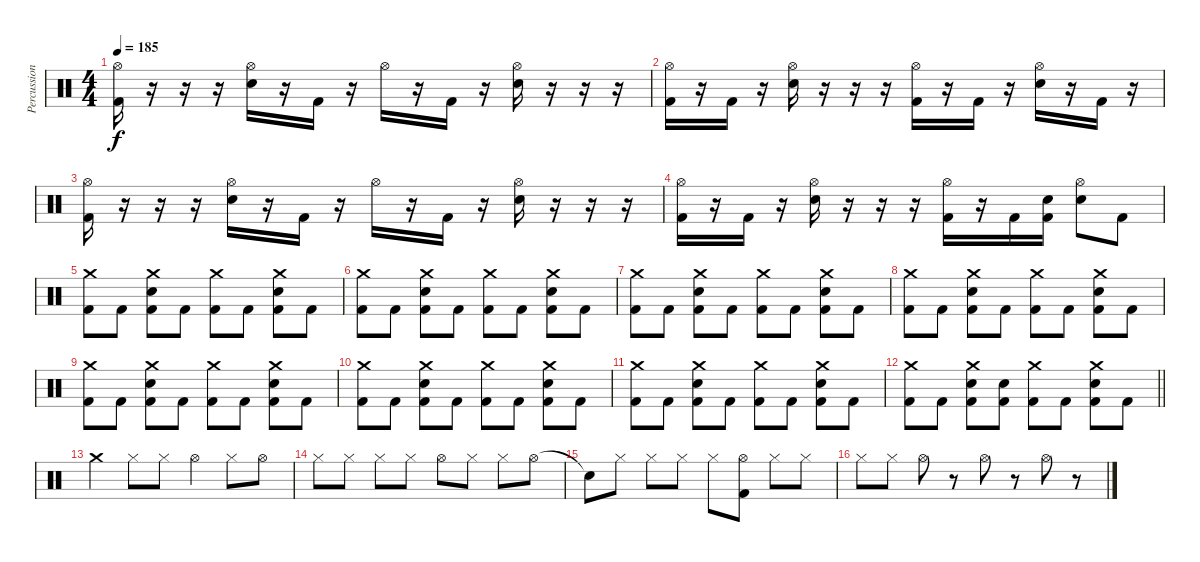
\track ("Percussion" "Percussion") {instrument percussion}
\staff {score}
\articulation defaults
\ts (4 4)
\tempo 185
\clef neutral
\ks c
("Hi-Hat (open)" "Kick (hit) 2").16{dy f} r.16 r.16 r.16 ("Hi-Hat (open)" "Electric Snare (hit)").16 r.16 "Kick (hit) 2".16 r.16 "Hi-Hat (open)".16 r.16 "Kick (hit) 2".16 r.16 ("Hi-Hat (open)" "Electric Snare (hit)").16 r.16 r.16 r.16 |
("Hi-Hat (open)" "Kick (hit) 2").16 r.16 "Kick (hit) 2".16 r.16 ("Hi-Hat (open)" "Electric Snare (hit)").16 r.16 r.16 r.16 ("Hi-Hat (open)" "Kick (hit) 2").16 r.16 "Kick (hit) 2".16 r.16 ("Hi-Hat (open)" "Electric Snare (hit)").16 r.16 "Kick (hit) 2".16 r.16 |
("Hi-Hat (open)" "Kick (hit) 2").16 r.16 r.16 r.16 ("Hi-Hat (open)" "Electric Snare (hit)").16 r.16 "Kick (hit) 2".16 r.16 "Hi-Hat (open)".16 r.16 "Kick (hit) 2".16 r.16 ("Hi-Hat (open)" "Electric Snare (hit)").16 r.16 r.16 r.16 |
("Hi-Hat (open)" "Kick (hit) 2").16 r.16 "Kick (hit) 2".16 r.16 ("Hi-Hat (open)" "Electric Snare (hit)").16 r.16 r.16 r.16 ("Hi-Hat (open)" "Kick (hit) 2").16 r.16 "Kick (hit) 2".16 ("Electric Snare (hit)" "Kick (hit) 2").16 ("Hi-Hat (open)" "Electric Snare (hit)").8 "Kick (hit) 2".8 |
("Crash medium (hit)" "Kick (hit) 2").8 "Kick (hit) 2".8 ("Crash medium (hit)" "Electric Snare (hit)" "Kick (hit) 2").8 "Kick (hit) 2".8 ("Crash medium (hit)" "Kick (hit) 2").8 "Kick (hit) 2".8 ("Crash medium (hit)" "Electric Snare (hit)" "Kick (hit) 2").8 "Kick (hit) 2".8 |
("Crash medium (hit)" "Kick (hit) 2").8 "Kick (hit) 2".8 ("Crash medium (hit)" "Electric Snare (hit)" "Kick (hit) 2").8 "Kick (hit) 2".8 ("Crash medium (hit)" "Kick (hit) 2").8 "Kick (hit) 2".8 ("Crash medium (hit)" "Electric Snare (hit)" "Kick (hit) 2").8 "Kick (hit) 2".8 |
("Crash medium (hit)" "Kick (hit) 2").8 "Kick (hit) 2".8 ("Crash medium (hit)" "Electric Snare (hit)" "Kick (hit) 2").8 "Kick (hit) 2".8 ("Crash medium (hit)" "Kick (hit) 2").8 "Kick (hit) 2".8 ("Crash medium (hit)" "Electric Snare (hit)" "Kick (hit) 2").8 "Kick (hit) 2".8 |
("Crash medium (hit)" "Kick (hit) 2").8 "Kick (hit) 2".8 ("Crash medium (hit)" "Electric Snare (hit)" "Kick (hit) 2").8 "Kick (hit) 2".8 ("Crash medium (hit)" "Kick (hit) 2").8 "Kick (hit) 2".8 ("Crash medium (hit)" "Electric Snare (hit)" "Kick (hit) 2").8 "Kick (hit) 2".8 |
("Crash medium (hit)" "Kick (hit) 2").8 "Kick (hit) 2".8 ("Crash medium (hit)" "Electric Snare (hit)" "Kick (hit) 2").8 "Kick (hit) 2".8 ("Crash medium (hit)" "Kick (hit) 2").8 "Kick (hit) 2".8 ("Crash medium (hit)" "Electric Snare (hit)" "Kick (hit) 2").8 "Kick (hit) 2".8 |
("Crash medium (hit)" "Kick (hit) 2").8 "Kick (hit) 2".8 ("Crash medium (hit)" "Electric Snare (hit)" "Kick (hit) 2").8 "Kick (hit) 2".8 ("Crash medium (hit)" "Kick (hit) 2").8 "Kick (hit) 2".8 ("Crash medium (hit)" "Electric Snare (hit)" "Kick (hit) 2").8 "Kick (hit) 2".8 |
("Crash medium (hit)" "Kick (hit) 2").8 "Kick (hit) 2".8 ("Crash medium (hit)" "Electric Snare (hit)" "Kick (hit) 2").8 "Kick (hit) 2".8 ("Crash medium (hit)" "Kick (hit) 2").8 "Kick (hit) 2".8 ("Crash medium (hit)" "Electric Snare (hit)" "Kick (hit) 2").8 "Kick (hit) 2".8 |
\barLineRight lightlight
("Crash medium (hit)" "Kick (hit) 2").8 "Kick (hit) 2".8 ("Crash medium (hit)" "Electric Snare (hit)" "Kick (hit) 2").8 ("Electric Snare (hit)" "Kick (hit) 2").8 ("Crash medium (hit)" "Kick (hit) 2").8 "Kick (hit) 2".8 ("Crash medium (hit)" "Electric Snare (hit)" "Kick (hit) 2").8 "Kick (hit) 2".8 |
"Crash medium (hit)".4 "Hi-Hat (closed)".8 "Hi-Hat (closed)".8 "Hi-Hat (open)".4 "Hi-Hat (closed)".8 "Hi-Hat (open)".8 |
"Hi-Hat (closed)".8 "Hi-Hat (closed)".8 "Hi-Hat (closed)".8 "Hi-Hat (closed)".8 "Hi-Hat (open)".8 "Hi-Hat (closed)".8 "Hi-Hat (closed)".8 "Hi-Hat (open)".8 |
"Snare (hit)"{t}.8 "Hi-Hat (closed)".8 "Hi-Hat (closed)".8 "Hi-Hat (closed)".8 "Hi-Hat (closed)".8 ("Hi-Hat (open)" "Kick (hit) 2").8 "Hi-Hat (closed)".8 "Hi-Hat (closed)".8 |
"Hi-Hat (closed)".8 "Hi-Hat (closed)".8 "Hi-Hat (open)".8 r.8 "Hi-Hat (open)".8 r.8 "Hi-Hat (open)".8 r.8
